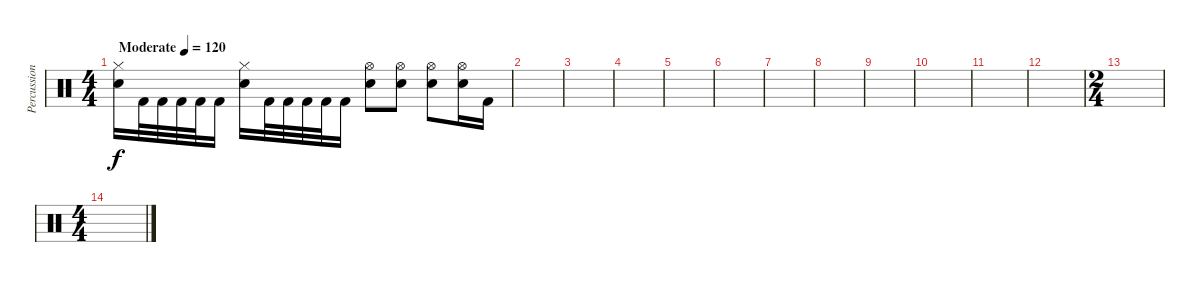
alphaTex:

\track ("Percussion" "Percussion") {instrument percussion}
\staff {score}
\articulation defaults
\ts (4 4)
\tempo (120 "Moderate")
\tempo 105
\tempo (120 "Moderate")
\clef neutral
\ks c
("Hi-Hat (closed)" "Snare (hit) 2").16{dy f} "Kick (hit) 2".32 "Kick (hit) 2".32 "Kick (hit) 2".32 "Kick (hit) 2".32 "Kick (hit) 2".16 ("Hi-Hat (closed)" "Snare (hit) 2").16 "Kick (hit) 2".32 "Kick (hit) 2".32 "Kick (hit) 2".32 "Kick (hit) 2".32 "Kick (hit) 2".16 ("Hi-Hat (open)" "Snare (hit) 2").8 ("Hi-Hat (open)" "Snare (hit) 2").8 ("Hi-Hat (open)" "Snare (hit) 2").8 ("Hi-Hat (open)" "Snare (hit) 2").16 "Kick (hit) 2".16 |
|
|
|
|
|
|
|
|
|
|
|
\ts (2 4)
|
\ts (4 4)
